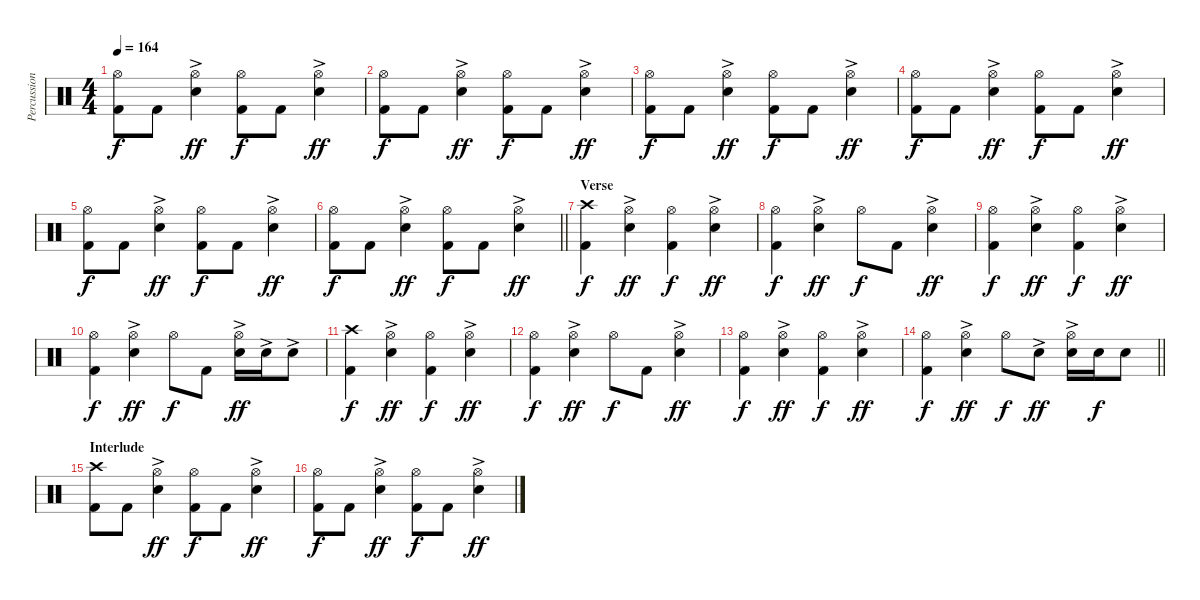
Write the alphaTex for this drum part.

\track ("Percussion" "Percussion") {instrument percussion}
\staff {score}
\articulation defaults
\ts (4 4)
\tempo 164
\clef neutral
\ks c
("Hi-Hat (open)" "Kick (hit) 2").8{dy f} "Kick (hit) 2".8 ("Hi-Hat (open)" "Electric Snare (hit)"{ac}).4{dy ff} ("Hi-Hat (open)" "Kick (hit) 2").8{dy f} "Kick (hit) 2".8 ("Hi-Hat (open)" "Electric Snare (hit)"{ac}).4{dy ff} |
("Hi-Hat (open)" "Kick (hit) 2").8{dy f} "Kick (hit) 2".8 ("Hi-Hat (open)" "Electric Snare (hit)"{ac}).4{dy ff} ("Hi-Hat (open)" "Kick (hit) 2").8{dy f} "Kick (hit) 2".8 ("Hi-Hat (open)" "Electric Snare (hit)"{ac}).4{dy ff} |
("Hi-Hat (open)" "Kick (hit) 2").8{dy f} "Kick (hit) 2".8 ("Hi-Hat (open)" "Electric Snare (hit)"{ac}).4{dy ff} ("Hi-Hat (open)" "Kick (hit) 2").8{dy f} "Kick (hit) 2".8 ("Hi-Hat (open)" "Electric Snare (hit)"{ac}).4{dy ff} |
("Hi-Hat (open)" "Kick (hit) 2").8{dy f} "Kick (hit) 2".8 ("Hi-Hat (open)" "Electric Snare (hit)"{ac}).4{dy ff} ("Hi-Hat (open)" "Kick (hit) 2").8{dy f} "Kick (hit) 2".8 ("Hi-Hat (open)" "Electric Snare (hit)"{ac}).4{dy ff} |
("Hi-Hat (open)" "Kick (hit) 2").8{dy f} "Kick (hit) 2".8 ("Hi-Hat (open)" "Electric Snare (hit)"{ac}).4{dy ff} ("Hi-Hat (open)" "Kick (hit) 2").8{dy f} "Kick (hit) 2".8 ("Hi-Hat (open)" "Electric Snare (hit)"{ac}).4{dy ff} |
\barLineRight lightlight
("Hi-Hat (open)" "Kick (hit) 2").8{dy f} "Kick (hit) 2".8 ("Hi-Hat (open)" "Electric Snare (hit)"{ac}).4{dy ff} ("Hi-Hat (open)" "Kick (hit) 2").8{dy f} "Kick (hit) 2".8 ("Hi-Hat (open)" "Electric Snare (hit)"{ac}).4{dy ff} |
\section ("" "Verse")
("Crash high (hit)" "Kick (hit) 2").4{dy f} ("Hi-Hat (open)" "Electric Snare (hit)"{ac}).4{dy ff} ("Hi-Hat (open)" "Kick (hit) 2").4{dy f} ("Hi-Hat (open)" "Electric Snare (hit)"{ac}).4{dy ff} |
("Hi-Hat (open)" "Kick (hit) 2").4{dy f} ("Hi-Hat (open)" "Electric Snare (hit)"{ac}).4{dy ff} "Hi-Hat (open)".8{dy f} "Kick (hit) 2".8 ("Hi-Hat (open)" "Electric Snare (hit)"{ac}).4{dy ff} |
("Hi-Hat (open)" "Kick (hit) 2").4{dy f} ("Hi-Hat (open)" "Electric Snare (hit)"{ac}).4{dy ff} ("Hi-Hat (open)" "Kick (hit) 2").4{dy f} ("Hi-Hat (open)" "Electric Snare (hit)"{ac}).4{dy ff} |
("Hi-Hat (open)" "Kick (hit) 2").4{dy f} ("Hi-Hat (open)" "Electric Snare (hit)"{ac}).4{dy ff} "Hi-Hat (open)".8{dy f} "Kick (hit) 2".8 ("Hi-Hat (open)" "Electric Snare (hit)"{ac}).16{dy ff} "Electric Snare (hit)"{ac}.16 "Electric Snare (hit)"{ac}.8 |
("Crash high (hit)" "Kick (hit) 2").4{dy f} ("Hi-Hat (open)" "Electric Snare (hit)"{ac}).4{dy ff} ("Hi-Hat (open)" "Kick (hit) 2").4{dy f} ("Hi-Hat (open)" "Electric Snare (hit)"{ac}).4{dy ff} |
("Hi-Hat (open)" "Kick (hit) 2").4{dy f} ("Hi-Hat (open)" "Electric Snare (hit)"{ac}).4{dy ff} "Hi-Hat (open)".8{dy f} "Kick (hit) 2".8 ("Hi-Hat (open)" "Electric Snare (hit)"{ac}).4{dy ff} |
("Hi-Hat (open)" "Kick (hit) 2").4{dy f} ("Hi-Hat (open)" "Electric Snare (hit)"{ac}).4{dy ff} ("Hi-Hat (open)" "Kick (hit) 2").4{dy f} ("Hi-Hat (open)" "Electric Snare (hit)"{ac}).4{dy ff} |
\barLineRight lightlight
("Hi-Hat (open)" "Kick (hit) 2").4{dy f} ("Hi-Hat (open)" "Electric Snare (hit)"{ac}).4{dy ff} "Hi-Hat (open)".8{dy f} "Electric Snare (hit)"{ac}.8{dy ff} ("Hi-Hat (open)" "Electric Snare (hit)"{ac}).16 "Electric Snare (hit)".16{dy f} "Electric Snare (hit)".8 |
\section ("" "Interlude")
("Crash high (hit)" "Kick (hit) 2").8 "Kick (hit) 2".8 ("Hi-Hat (open)" "Electric Snare (hit)"{ac}).4{dy ff} ("Hi-Hat (open)" "Kick (hit) 2").8{dy f} "Kick (hit) 2".8 ("Hi-Hat (open)" "Electric Snare (hit)"{ac}).4{dy ff} |
("Hi-Hat (open)" "Kick (hit) 2").8{dy f} "Kick (hit) 2".8 ("Hi-Hat (open)" "Electric Snare (hit)"{ac}).4{dy ff} ("Hi-Hat (open)" "Kick (hit) 2").8{dy f} "Kick (hit) 2".8 ("Hi-Hat (open)" "Electric Snare (hit)"{ac}).4{dy ff}
